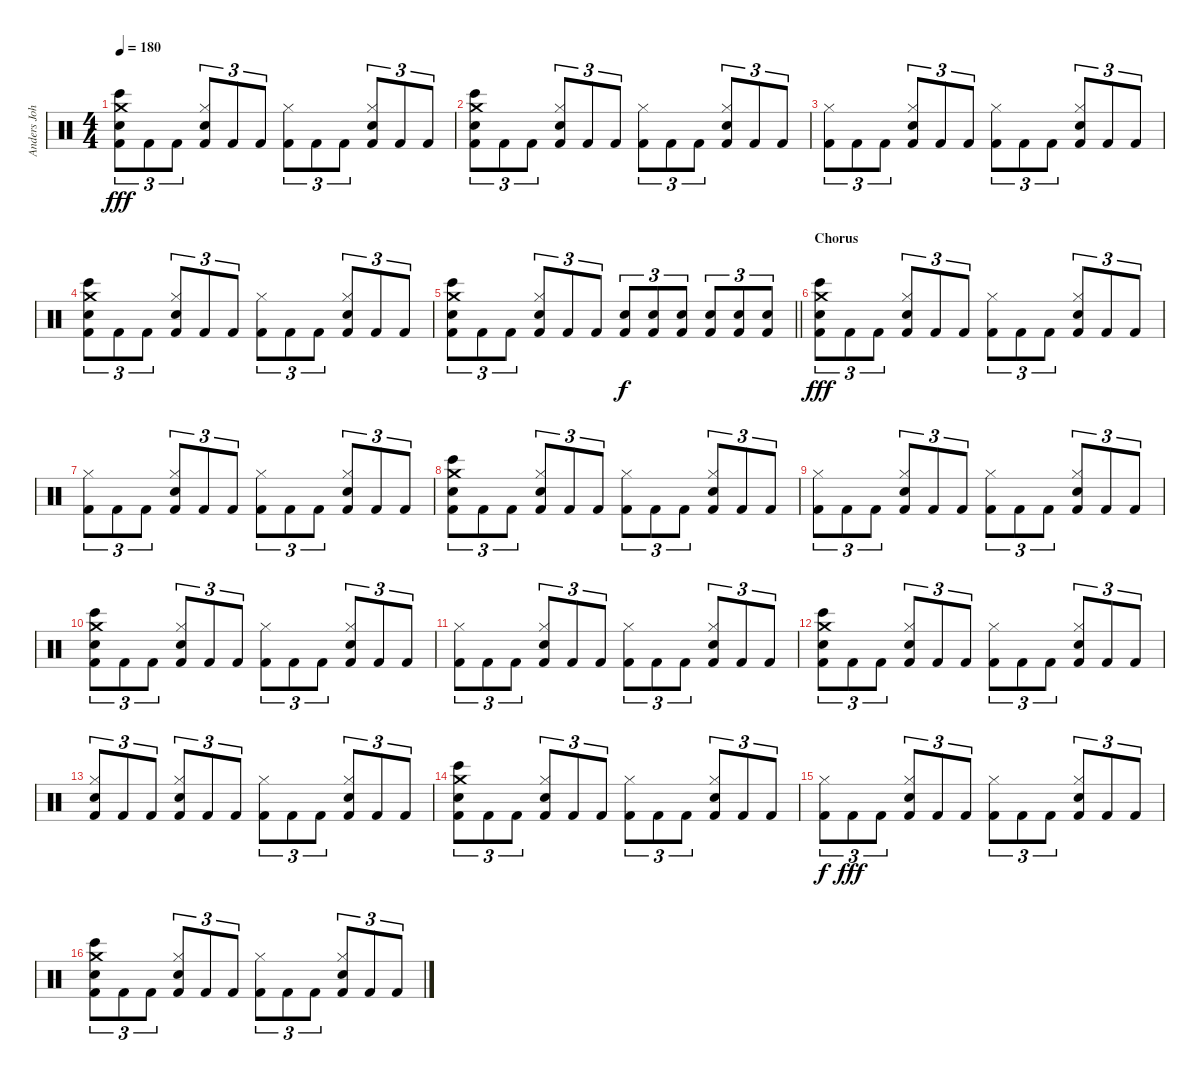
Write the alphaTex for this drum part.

\track ("Anders Johansson" "Anders Joh") {instrument percussion}
\staff {score}
\articulation defaults
\ts (4 4)
\tempo 180
\clef neutral
\ks c
("Bongo High (hit)" "Crash medium (hit)" "Snare (hit) 2" "Kick (hit) 2").8{tu (3 2) dy fff} "Kick (hit) 2".8{tu (3 2)} "Kick (hit) 2".8{tu (3 2)} ("Hi-Hat (closed)" "Electric Snare (hit)" "Kick (hit) 2").8{tu (3 2)} "Kick (hit) 2".8{tu (3 2)} "Kick (hit) 2".8{tu (3 2)} ("Hi-Hat (closed)" "Kick (hit) 2").8{tu (3 2)} "Kick (hit) 2".8{tu (3 2)} "Kick (hit) 2".8{tu (3 2)} ("Hi-Hat (closed)" "Electric Snare (hit)" "Kick (hit) 2").8{tu (3 2)} "Kick (hit) 2".8{tu (3 2)} "Kick (hit) 2".8{tu (3 2)} |
("Bongo High (hit)" "Crash medium (hit)" "Snare (hit) 2" "Kick (hit) 2").8{tu (3 2)} "Kick (hit) 2".8{tu (3 2)} "Kick (hit) 2".8{tu (3 2)} ("Hi-Hat (closed)" "Electric Snare (hit)" "Kick (hit) 2").8{tu (3 2)} "Kick (hit) 2".8{tu (3 2)} "Kick (hit) 2".8{tu (3 2)} ("Hi-Hat (closed)" "Kick (hit) 2").8{tu (3 2)} "Kick (hit) 2".8{tu (3 2)} "Kick (hit) 2".8{tu (3 2)} ("Hi-Hat (closed)" "Electric Snare (hit)" "Kick (hit) 2").8{tu (3 2)} "Kick (hit) 2".8{tu (3 2)} "Kick (hit) 2".8{tu (3 2)} |
("Hi-Hat (closed)" "Kick (hit) 2").8{tu (3 2)} "Kick (hit) 2".8{tu (3 2)} "Kick (hit) 2".8{tu (3 2)} ("Hi-Hat (closed)" "Electric Snare (hit)" "Kick (hit) 2").8{tu (3 2)} "Kick (hit) 2".8{tu (3 2)} "Kick (hit) 2".8{tu (3 2)} ("Hi-Hat (closed)" "Kick (hit) 2").8{tu (3 2)} "Kick (hit) 2".8{tu (3 2)} "Kick (hit) 2".8{tu (3 2)} ("Hi-Hat (closed)" "Electric Snare (hit)" "Kick (hit) 2").8{tu (3 2)} "Kick (hit) 2".8{tu (3 2)} "Kick (hit) 2".8{tu (3 2)} |
("Bongo High (hit)" "Crash medium (hit)" "Snare (hit) 2" "Kick (hit) 2").8{tu (3 2)} "Kick (hit) 2".8{tu (3 2)} "Kick (hit) 2".8{tu (3 2)} ("Hi-Hat (closed)" "Electric Snare (hit)" "Kick (hit) 2").8{tu (3 2)} "Kick (hit) 2".8{tu (3 2)} "Kick (hit) 2".8{tu (3 2)} ("Hi-Hat (closed)" "Kick (hit) 2").8{tu (3 2)} "Kick (hit) 2".8{tu (3 2)} "Kick (hit) 2".8{tu (3 2)} ("Hi-Hat (closed)" "Electric Snare (hit)" "Kick (hit) 2").8{tu (3 2)} "Kick (hit) 2".8{tu (3 2)} "Kick (hit) 2".8{tu (3 2)} |
\barLineRight lightlight
("Bongo High (hit)" "Crash medium (hit)" "Snare (hit) 2" "Kick (hit) 2").8{tu (3 2)} "Kick (hit) 2".8{tu (3 2)} "Kick (hit) 2".8{tu (3 2)} ("Hi-Hat (closed)" "Electric Snare (hit)" "Kick (hit) 2").8{tu (3 2)} "Kick (hit) 2".8{tu (3 2)} "Kick (hit) 2".8{tu (3 2)} ("Snare (hit) 2" "Kick (hit) 2").8{tu (3 2) dy f} ("Electric Snare (hit)" "Kick (hit) 2").8{tu (3 2)} ("Snare (hit) 2" "Kick (hit) 2").8{tu (3 2)} ("Snare (hit) 2" "Kick (hit) 2").8{tu (3 2)} ("Electric Snare (hit)" "Kick (hit) 2").8{tu (3 2)} ("Snare (hit) 2" "Kick (hit) 2").8{tu (3 2)} |
\section ("" "Chorus")
("Bongo High (hit)" "Crash medium (hit)" "Snare (hit) 2" "Kick (hit) 2").8{tu (3 2) dy fff} "Kick (hit) 2".8{tu (3 2)} "Kick (hit) 2".8{tu (3 2)} ("Hi-Hat (closed)" "Electric Snare (hit)" "Kick (hit) 2").8{tu (3 2)} "Kick (hit) 2".8{tu (3 2)} "Kick (hit) 2".8{tu (3 2)} ("Hi-Hat (closed)" "Kick (hit) 2").8{tu (3 2)} "Kick (hit) 2".8{tu (3 2)} "Kick (hit) 2".8{tu (3 2)} ("Hi-Hat (closed)" "Electric Snare (hit)" "Kick (hit) 2").8{tu (3 2)} "Kick (hit) 2".8{tu (3 2)} "Kick (hit) 2".8{tu (3 2)} |
("Hi-Hat (closed)" "Kick (hit) 2").8{tu (3 2)} "Kick (hit) 2".8{tu (3 2)} "Kick (hit) 2".8{tu (3 2)} ("Hi-Hat (closed)" "Electric Snare (hit)" "Kick (hit) 2").8{tu (3 2)} "Kick (hit) 2".8{tu (3 2)} "Kick (hit) 2".8{tu (3 2)} ("Hi-Hat (closed)" "Kick (hit) 2").8{tu (3 2)} "Kick (hit) 2".8{tu (3 2)} "Kick (hit) 2".8{tu (3 2)} ("Hi-Hat (closed)" "Electric Snare (hit)" "Kick (hit) 2").8{tu (3 2)} "Kick (hit) 2".8{tu (3 2)} "Kick (hit) 2".8{tu (3 2)} |
("Bongo High (hit)" "Crash medium (hit)" "Snare (hit) 2" "Kick (hit) 2").8{tu (3 2)} "Kick (hit) 2".8{tu (3 2)} "Kick (hit) 2".8{tu (3 2)} ("Hi-Hat (closed)" "Electric Snare (hit)" "Kick (hit) 2").8{tu (3 2)} "Kick (hit) 2".8{tu (3 2)} "Kick (hit) 2".8{tu (3 2)} ("Hi-Hat (closed)" "Kick (hit) 2").8{tu (3 2)} "Kick (hit) 2".8{tu (3 2)} "Kick (hit) 2".8{tu (3 2)} ("Hi-Hat (closed)" "Electric Snare (hit)" "Kick (hit) 2").8{tu (3 2)} "Kick (hit) 2".8{tu (3 2)} "Kick (hit) 2".8{tu (3 2)} |
("Hi-Hat (closed)" "Kick (hit) 2").8{tu (3 2)} "Kick (hit) 2".8{tu (3 2)} "Kick (hit) 2".8{tu (3 2)} ("Hi-Hat (closed)" "Electric Snare (hit)" "Kick (hit) 2").8{tu (3 2)} "Kick (hit) 2".8{tu (3 2)} "Kick (hit) 2".8{tu (3 2)} ("Hi-Hat (closed)" "Kick (hit) 2").8{tu (3 2)} "Kick (hit) 2".8{tu (3 2)} "Kick (hit) 2".8{tu (3 2)} ("Hi-Hat (closed)" "Electric Snare (hit)" "Kick (hit) 2").8{tu (3 2)} "Kick (hit) 2".8{tu (3 2)} "Kick (hit) 2".8{tu (3 2)} |
("Bongo High (hit)" "Crash medium (hit)" "Snare (hit) 2" "Kick (hit) 2").8{tu (3 2)} "Kick (hit) 2".8{tu (3 2)} "Kick (hit) 2".8{tu (3 2)} ("Hi-Hat (closed)" "Electric Snare (hit)" "Kick (hit) 2").8{tu (3 2)} "Kick (hit) 2".8{tu (3 2)} "Kick (hit) 2".8{tu (3 2)} ("Hi-Hat (closed)" "Kick (hit) 2").8{tu (3 2)} "Kick (hit) 2".8{tu (3 2)} "Kick (hit) 2".8{tu (3 2)} ("Hi-Hat (closed)" "Electric Snare (hit)" "Kick (hit) 2").8{tu (3 2)} "Kick (hit) 2".8{tu (3 2)} "Kick (hit) 2".8{tu (3 2)} |
("Hi-Hat (closed)" "Kick (hit) 2").8{tu (3 2)} "Kick (hit) 2".8{tu (3 2)} "Kick (hit) 2".8{tu (3 2)} ("Hi-Hat (closed)" "Electric Snare (hit)" "Kick (hit) 2").8{tu (3 2)} "Kick (hit) 2".8{tu (3 2)} "Kick (hit) 2".8{tu (3 2)} ("Hi-Hat (closed)" "Kick (hit) 2").8{tu (3 2)} "Kick (hit) 2".8{tu (3 2)} "Kick (hit) 2".8{tu (3 2)} ("Hi-Hat (closed)" "Electric Snare (hit)" "Kick (hit) 2").8{tu (3 2)} "Kick (hit) 2".8{tu (3 2)} "Kick (hit) 2".8{tu (3 2)} |
("Bongo High (hit)" "Crash medium (hit)" "Snare (hit) 2" "Kick (hit) 2").8{tu (3 2)} "Kick (hit) 2".8{tu (3 2)} "Kick (hit) 2".8{tu (3 2)} ("Hi-Hat (closed)" "Electric Snare (hit)" "Kick (hit) 2").8{tu (3 2)} "Kick (hit) 2".8{tu (3 2)} "Kick (hit) 2".8{tu (3 2)} ("Hi-Hat (closed)" "Kick (hit) 2").8{tu (3 2)} "Kick (hit) 2".8{tu (3 2)} "Kick (hit) 2".8{tu (3 2)} ("Hi-Hat (closed)" "Electric Snare (hit)" "Kick (hit) 2").8{tu (3 2)} "Kick (hit) 2".8{tu (3 2)} "Kick (hit) 2".8{tu (3 2)} |
("Hi-Hat (closed)" "Electric Snare (hit)" "Kick (hit) 2").8{tu (3 2)} "Kick (hit) 2".8{tu (3 2)} "Kick (hit) 2".8{tu (3 2)} ("Hi-Hat (closed)" "Electric Snare (hit)" "Kick (hit) 2").8{tu (3 2)} "Kick (hit) 2".8{tu (3 2)} "Kick (hit) 2".8{tu (3 2)} ("Hi-Hat (closed)" "Kick (hit) 2").8{tu (3 2)} "Kick (hit) 2".8{tu (3 2)} "Kick (hit) 2".8{tu (3 2)} ("Hi-Hat (closed)" "Electric Snare (hit)" "Kick (hit) 2").8{tu (3 2)} "Kick (hit) 2".8{tu (3 2)} "Kick (hit) 2".8{tu (3 2)} |
("Bongo High (hit)" "Crash medium (hit)" "Snare (hit) 2" "Kick (hit) 2").8{tu (3 2)} "Kick (hit) 2".8{tu (3 2)} "Kick (hit) 2".8{tu (3 2)} ("Hi-Hat (closed)" "Electric Snare (hit)" "Kick (hit) 2").8{tu (3 2)} "Kick (hit) 2".8{tu (3 2)} "Kick (hit) 2".8{tu (3 2)} ("Hi-Hat (closed)" "Kick (hit) 2").8{tu (3 2)} "Kick (hit) 2".8{tu (3 2)} "Kick (hit) 2".8{tu (3 2)} ("Hi-Hat (closed)" "Electric Snare (hit)" "Kick (hit) 2").8{tu (3 2)} "Kick (hit) 2".8{tu (3 2)} "Kick (hit) 2".8{tu (3 2)} |
("Hi-Hat (closed)" "Kick (hit) 2").8{tu (3 2) dy f} "Kick (hit) 2".8{tu (3 2) dy fff} "Kick (hit) 2".8{tu (3 2)} ("Hi-Hat (closed)" "Electric Snare (hit)" "Kick (hit) 2").8{tu (3 2)} "Kick (hit) 2".8{tu (3 2)} "Kick (hit) 2".8{tu (3 2)} ("Hi-Hat (closed)" "Kick (hit) 2").8{tu (3 2)} "Kick (hit) 2".8{tu (3 2)} "Kick (hit) 2".8{tu (3 2)} ("Hi-Hat (closed)" "Electric Snare (hit)" "Kick (hit) 2").8{tu (3 2)} "Kick (hit) 2".8{tu (3 2)} "Kick (hit) 2".8{tu (3 2)} |
("Bongo High (hit)" "Crash medium (hit)" "Snare (hit) 2" "Kick (hit) 2").8{tu (3 2)} "Kick (hit) 2".8{tu (3 2)} "Kick (hit) 2".8{tu (3 2)} ("Hi-Hat (closed)" "Electric Snare (hit)" "Kick (hit) 2").8{tu (3 2)} "Kick (hit) 2".8{tu (3 2)} "Kick (hit) 2".8{tu (3 2)} ("Hi-Hat (closed)" "Kick (hit) 2").8{tu (3 2)} "Kick (hit) 2".8{tu (3 2)} "Kick (hit) 2".8{tu (3 2)} ("Hi-Hat (closed)" "Electric Snare (hit)" "Kick (hit) 2").8{tu (3 2)} "Kick (hit) 2".8{tu (3 2)} "Kick (hit) 2".8{tu (3 2)}
